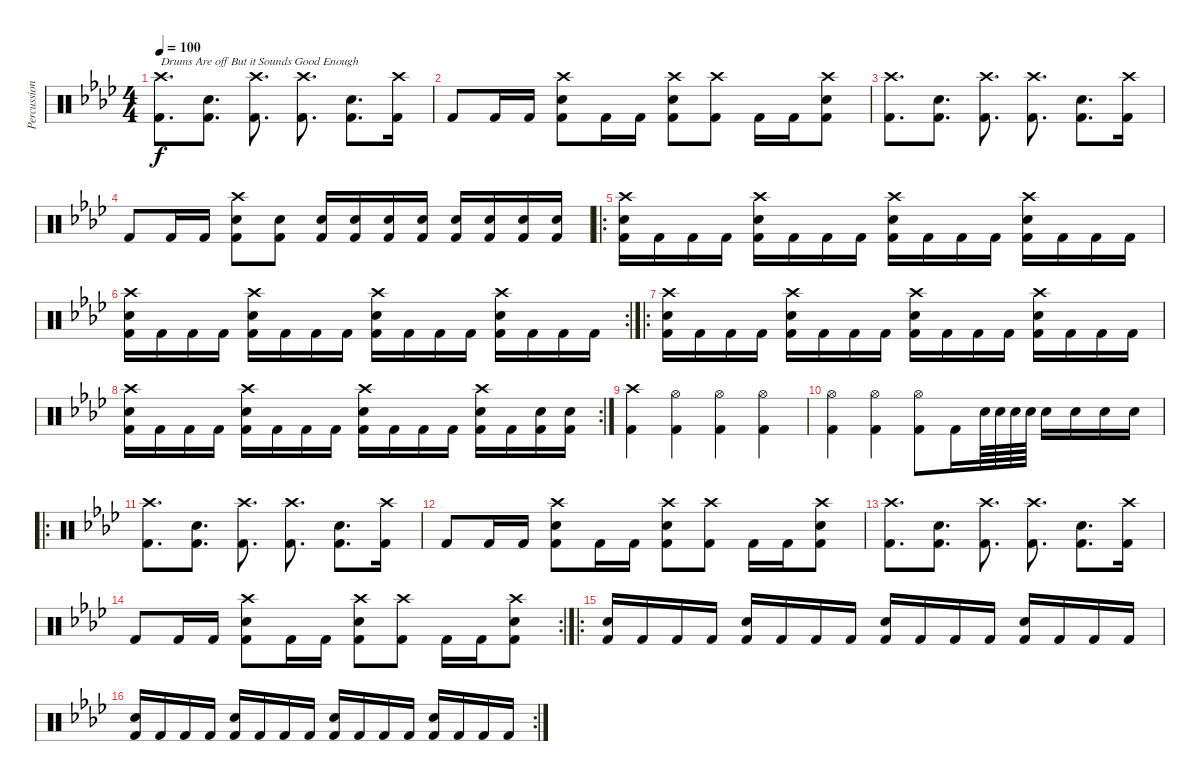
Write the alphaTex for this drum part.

\track ("Percussion" "Percussion") {instrument percussion}
\staff {score}
\articulation defaults
\ts (4 4)
\tempo 100
\clef neutral
\ks ab
("Crash high (hit)" "Kick (hit) 2").8{d txt "Drums Are off But it Sounds Good Enough" dy f} ("Electric Snare (hit)" "Kick (hit) 2").8{d} ("Crash high (hit)" "Kick (hit) 2").8{d} ("Crash high (hit)" "Kick (hit) 2").8{d} ("Electric Snare (hit)" "Kick (hit) 2").8{d} ("Crash high (hit)" "Kick (hit) 2").16 |
"Kick (hit) 2".8 "Kick (hit) 2".16 "Kick (hit) 2".16 ("Crash high (hit)" "Electric Snare (hit)" "Kick (hit) 2").8 "Kick (hit) 2".16 "Kick (hit) 2".16 ("Crash high (hit)" "Electric Snare (hit)" "Kick (hit) 2").8 ("Crash high (hit)" "Kick (hit) 2").8 "Kick (hit) 2".16 "Kick (hit) 2".16 ("Crash high (hit)" "Electric Snare (hit)" "Kick (hit) 2").8 |
("Crash high (hit)" "Kick (hit) 2").8{d} ("Electric Snare (hit)" "Kick (hit) 2").8{d} ("Crash high (hit)" "Kick (hit) 2").8{d} ("Crash high (hit)" "Kick (hit) 2").8{d} ("Electric Snare (hit)" "Kick (hit) 2").8{d} ("Crash high (hit)" "Kick (hit) 2").16 |
"Kick (hit) 2".8 "Kick (hit) 2".16 "Kick (hit) 2".16 ("Crash high (hit)" "Electric Snare (hit)" "Kick (hit) 2").8 ("Electric Snare (hit)" "Kick (hit) 2").8 ("Electric Snare (hit)" "Kick (hit) 2").16 ("Electric Snare (hit)" "Kick (hit) 2").16 ("Electric Snare (hit)" "Kick (hit) 2").16 ("Electric Snare (hit)" "Kick (hit) 2").16 ("Electric Snare (hit)" "Kick (hit) 2").16 ("Electric Snare (hit)" "Kick (hit) 2").16 ("Electric Snare (hit)" "Kick (hit) 2").16 ("Electric Snare (hit)" "Kick (hit) 2").16 |
\ro
("Crash high (hit)" "Electric Snare (hit)" "Kick (hit) 2").16 "Kick (hit) 2".16 "Kick (hit) 2".16 "Kick (hit) 2".16 ("Crash high (hit)" "Electric Snare (hit)" "Kick (hit) 2").16 "Kick (hit) 2".16 "Kick (hit) 2".16 "Kick (hit) 2".16 ("Crash high (hit)" "Electric Snare (hit)" "Kick (hit) 2").16 "Kick (hit) 2".16 "Kick (hit) 2".16 "Kick (hit) 2".16 ("Crash high (hit)" "Electric Snare (hit)" "Kick (hit) 2").16 "Kick (hit) 2".16 "Kick (hit) 2".16 "Kick (hit) 2".16 |
\rc 2
("Crash high (hit)" "Electric Snare (hit)" "Kick (hit) 2").16 "Kick (hit) 2".16 "Kick (hit) 2".16 "Kick (hit) 2".16 ("Crash high (hit)" "Electric Snare (hit)" "Kick (hit) 2").16 "Kick (hit) 2".16 "Kick (hit) 2".16 "Kick (hit) 2".16 ("Crash high (hit)" "Electric Snare (hit)" "Kick (hit) 2").16 "Kick (hit) 2".16 "Kick (hit) 2".16 "Kick (hit) 2".16 ("Crash high (hit)" "Electric Snare (hit)" "Kick (hit) 2").16 "Kick (hit) 2".16 "Kick (hit) 2".16 "Kick (hit) 2".16 |
\ro
("Crash high (hit)" "Electric Snare (hit)" "Kick (hit) 2").16 "Kick (hit) 2".16 "Kick (hit) 2".16 "Kick (hit) 2".16 ("Crash high (hit)" "Electric Snare (hit)" "Kick (hit) 2").16 "Kick (hit) 2".16 "Kick (hit) 2".16 "Kick (hit) 2".16 ("Crash high (hit)" "Electric Snare (hit)" "Kick (hit) 2").16 "Kick (hit) 2".16 "Kick (hit) 2".16 "Kick (hit) 2".16 ("Crash high (hit)" "Electric Snare (hit)" "Kick (hit) 2").16 "Kick (hit) 2".16 "Kick (hit) 2".16 "Kick (hit) 2".16 |
\rc 2
("Crash high (hit)" "Electric Snare (hit)" "Kick (hit) 2").16 "Kick (hit) 2".16 "Kick (hit) 2".16 "Kick (hit) 2".16 ("Crash high (hit)" "Electric Snare (hit)" "Kick (hit) 2").16 "Kick (hit) 2".16 "Kick (hit) 2".16 "Kick (hit) 2".16 ("Crash high (hit)" "Electric Snare (hit)" "Kick (hit) 2").16 "Kick (hit) 2".16 "Kick (hit) 2".16 "Kick (hit) 2".16 ("Crash high (hit)" "Electric Snare (hit)" "Kick (hit) 2").16 "Kick (hit) 2".16 ("Electric Snare (hit)" "Kick (hit) 2").16 ("Electric Snare (hit)" "Kick (hit) 2").16 |
("Crash high (hit)" "Kick (hit) 2").4 ("Hi-Hat (open)" "Kick (hit) 2").4 ("Hi-Hat (open)" "Kick (hit) 2").4 ("Hi-Hat (open)" "Kick (hit) 2").4 |
("Hi-Hat (open)" "Kick (hit) 2").4 ("Hi-Hat (open)" "Kick (hit) 2").4 ("Hi-Hat (open)" "Kick (hit) 2").8 "Kick (hit) 2".16 "Electric Snare (hit)".64 "Electric Snare (hit)".64 "Electric Snare (hit)".64 "Electric Snare (hit)".64 "Electric Snare (hit)".16 "Electric Snare (hit)".16 "Electric Snare (hit)".16 "Electric Snare (hit)".16 |
\ro
("Crash high (hit)" "Kick (hit) 2").8{d} ("Electric Snare (hit)" "Kick (hit) 2").8{d} ("Crash high (hit)" "Kick (hit) 2").8{d} ("Crash high (hit)" "Kick (hit) 2").8{d} ("Electric Snare (hit)" "Kick (hit) 2").8{d} ("Crash high (hit)" "Kick (hit) 2").16 |
"Kick (hit) 2".8 "Kick (hit) 2".16 "Kick (hit) 2".16 ("Crash high (hit)" "Electric Snare (hit)" "Kick (hit) 2").8 "Kick (hit) 2".16 "Kick (hit) 2".16 ("Crash high (hit)" "Electric Snare (hit)" "Kick (hit) 2").8 ("Crash high (hit)" "Kick (hit) 2").8 "Kick (hit) 2".16 "Kick (hit) 2".16 ("Crash high (hit)" "Electric Snare (hit)" "Kick (hit) 2").8 |
("Crash high (hit)" "Kick (hit) 2").8{d} ("Electric Snare (hit)" "Kick (hit) 2").8{d} ("Crash high (hit)" "Kick (hit) 2").8{d} ("Crash high (hit)" "Kick (hit) 2").8{d} ("Electric Snare (hit)" "Kick (hit) 2").8{d} ("Crash high (hit)" "Kick (hit) 2").16 |
\rc 2 "Kick (hit) 2".8 "Kick (hit) 2".16 "Kick (hit) 2".16
("Crash high (hit)" "Electric Snare (hit)" "Kick (hit) 2").8 "Kick (hit) 2".16 "Kick (hit) 2".16 ("Crash high (hit)" "Electric Snare (hit)" "Kick (hit) 2").8 ("Crash high (hit)" "Kick (hit) 2").8 "Kick (hit) 2".16 "Kick (hit) 2".16 ("Crash high (hit)" "Electric Snare (hit)" "Kick (hit) 2").8 |
\ro
("Electric Snare (hit)" "Kick (hit) 2").16 "Kick (hit) 2".16 "Kick (hit) 2".16 "Kick (hit) 2".16 ("Electric Snare (hit)" "Kick (hit) 2").16 "Kick (hit) 2".16 "Kick (hit) 2".16 "Kick (hit) 2".16 ("Electric Snare (hit)" "Kick (hit) 2").16 "Kick (hit) 2".16 "Kick (hit) 2".16 "Kick (hit) 2".16 ("Electric Snare (hit)" "Kick (hit) 2").16 "Kick (hit) 2".16 "Kick (hit) 2".16 "Kick (hit) 2".16 |
\rc 2
("Electric Snare (hit)" "Kick (hit) 2").16 "Kick (hit) 2".16 "Kick (hit) 2".16 "Kick (hit) 2".16 ("Electric Snare (hit)" "Kick (hit) 2").16 "Kick (hit) 2".16 "Kick (hit) 2".16 "Kick (hit) 2".16 ("Electric Snare (hit)" "Kick (hit) 2").16 "Kick (hit) 2".16 "Kick (hit) 2".16 "Kick (hit) 2".16 ("Electric Snare (hit)" "Kick (hit) 2").16 "Kick (hit) 2".16 "Kick (hit) 2".16 "Kick (hit) 2".16
